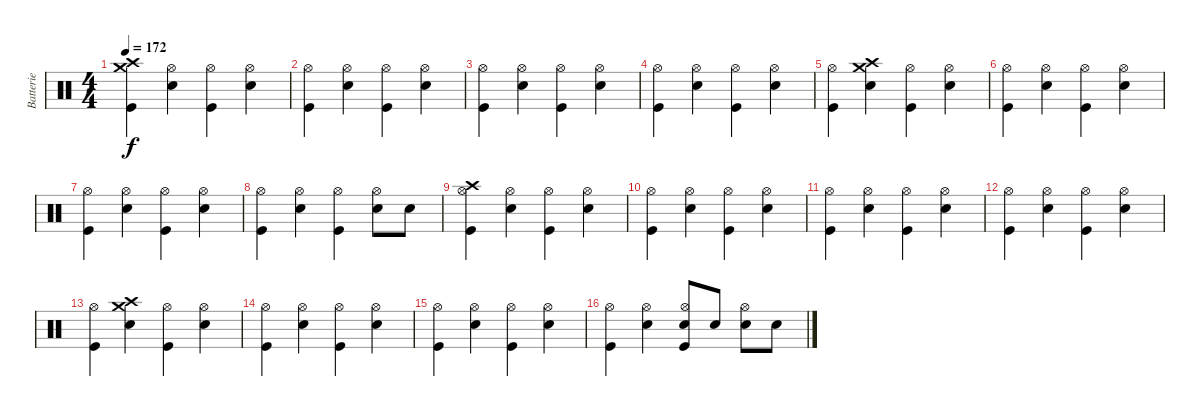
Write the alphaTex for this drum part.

\track ("Batterie" "Batterie") {instrument percussion}
\staff {score}
\articulation defaults
\ts (4 4)
\tempo 172
\clef neutral
\ks c
("Crash high (hit)" "Crash medium (hit)" "Kick (hit)").4{dy f} ("Hi-Hat (open)" "Snare (hit) 2").4 ("Hi-Hat (open)" "Kick (hit)").4 ("Hi-Hat (open)" "Snare (hit) 2").4 |
("Hi-Hat (open)" "Kick (hit)").4 ("Hi-Hat (open)" "Snare (hit) 2").4 ("Hi-Hat (open)" "Kick (hit)").4 ("Hi-Hat (open)" "Snare (hit) 2").4 |
("Hi-Hat (open)" "Kick (hit)").4 ("Hi-Hat (open)" "Snare (hit) 2").4 ("Hi-Hat (open)" "Kick (hit)").4 ("Hi-Hat (open)" "Snare (hit) 2").4 |
("Hi-Hat (open)" "Kick (hit)").4 ("Hi-Hat (open)" "Snare (hit) 2").4 ("Hi-Hat (open)" "Kick (hit)").4 ("Hi-Hat (open)" "Snare (hit) 2").4 |
("Hi-Hat (open)" "Kick (hit)").4 ("Crash high (hit)" "Crash medium (hit)" "Snare (hit) 2").4 ("Hi-Hat (open)" "Kick (hit)").4 ("Hi-Hat (open)" "Snare (hit) 2").4 |
("Hi-Hat (open)" "Kick (hit)").4 ("Hi-Hat (open)" "Snare (hit) 2").4 ("Hi-Hat (open)" "Kick (hit)").4 ("Hi-Hat (open)" "Snare (hit) 2").4 |
("Hi-Hat (open)" "Kick (hit)").4 ("Hi-Hat (open)" "Snare (hit) 2").4 ("Hi-Hat (open)" "Kick (hit)").4 ("Hi-Hat (open)" "Snare (hit) 2").4 |
("Hi-Hat (open)" "Kick (hit)").4 ("Hi-Hat (open)" "Snare (hit) 2").4 ("Hi-Hat (open)" "Kick (hit)").4 ("Hi-Hat (open)" "Snare (hit) 2").8 "Snare (hit) 2".8 |
("Hi-Hat (open)" "Crash high (hit)" "Kick (hit)").4 ("Hi-Hat (open)" "Snare (hit) 2").4 ("Hi-Hat (open)" "Kick (hit)").4 ("Hi-Hat (open)" "Snare (hit) 2").4 |
("Hi-Hat (open)" "Kick (hit)").4 ("Hi-Hat (open)" "Snare (hit) 2").4 ("Hi-Hat (open)" "Kick (hit)").4 ("Hi-Hat (open)" "Snare (hit) 2").4 |
("Hi-Hat (open)" "Kick (hit)").4 ("Hi-Hat (open)" "Snare (hit) 2").4 ("Hi-Hat (open)" "Kick (hit)").4 ("Hi-Hat (open)" "Snare (hit) 2").4 |
("Hi-Hat (open)" "Kick (hit)").4 ("Hi-Hat (open)" "Snare (hit) 2").4 ("Hi-Hat (open)" "Kick (hit)").4 ("Hi-Hat (open)" "Snare (hit) 2").4 |
("Hi-Hat (open)" "Kick (hit)").4 ("Crash high (hit)" "Crash medium (hit)" "Snare (hit) 2").4 ("Hi-Hat (open)" "Kick (hit)").4 ("Hi-Hat (open)" "Snare (hit) 2").4 |
("Hi-Hat (open)" "Kick (hit)").4 ("Hi-Hat (open)" "Snare (hit) 2").4 ("Hi-Hat (open)" "Kick (hit)").4 ("Hi-Hat (open)" "Snare (hit) 2").4 |
("Hi-Hat (open)" "Kick (hit)").4 ("Hi-Hat (open)" "Snare (hit) 2").4 ("Hi-Hat (open)" "Kick (hit)").4 ("Hi-Hat (open)" "Snare (hit) 2").4 |
("Hi-Hat (open)" "Kick (hit)").4 ("Hi-Hat (open)" "Snare (hit) 2").4 ("Hi-Hat (open)" "Snare (hit) 2" "Kick (hit)").8 "Snare (hit) 2".8 ("Hi-Hat (open)" "Snare (hit) 2").8 "Snare (hit) 2".8
